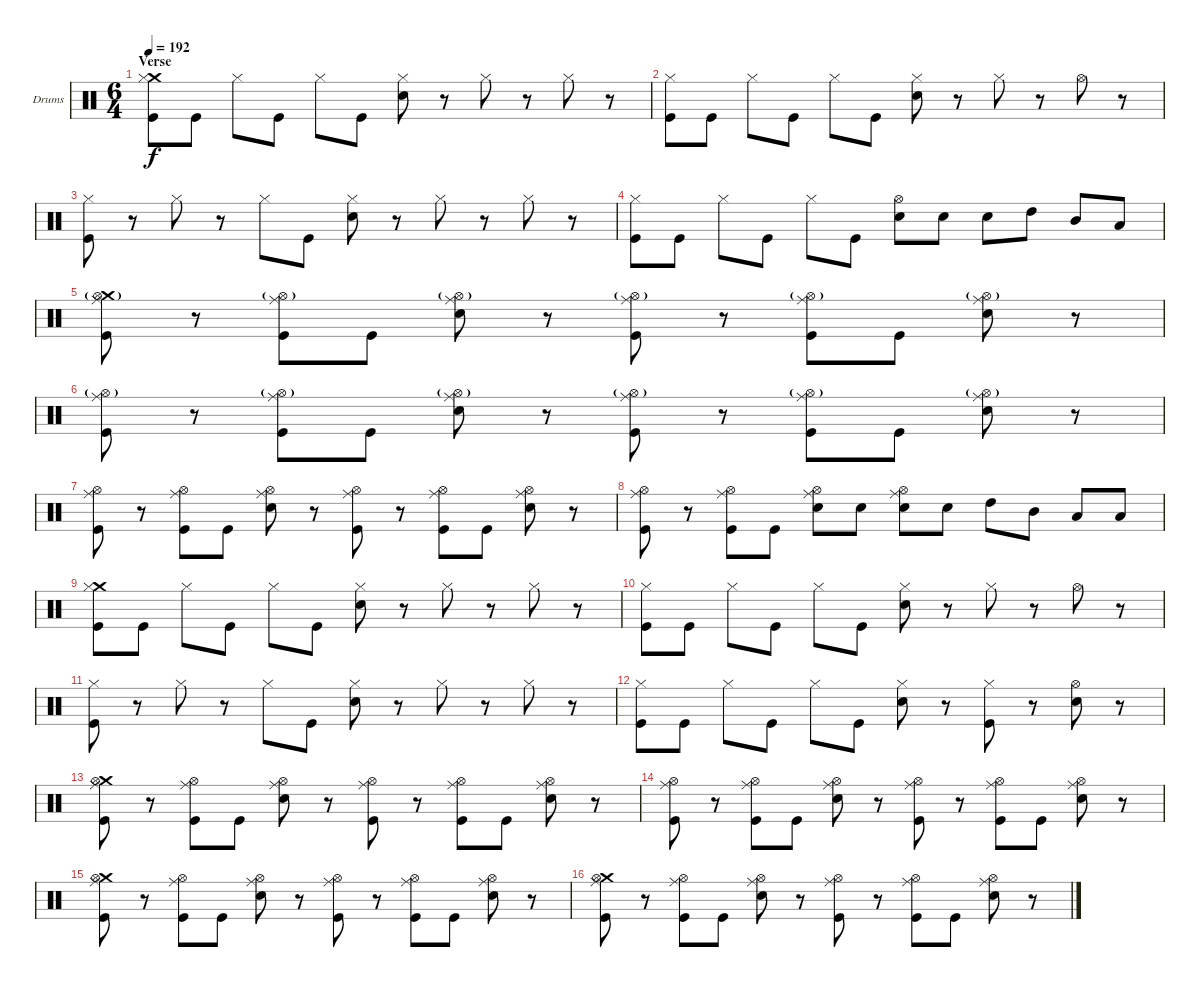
\bracketExtendMode groupsimilarinstruments
\firstSystemTrackNameOrientation horizontal
\otherSystemsTrackNameOrientation horizontal
\track ("Drumkit" "Drums") {instrument percussion}
\staff {score}
\articulation defaults
\ts (6 4)
\section ("" "Verse")
\tempo 192
\clef neutral
\ks c
("Crash medium (hit)" "Hi-Hat (closed)" "Kick (hit)").8{dy f} "Kick (hit)".8 "Hi-Hat (closed)".8 "Kick (hit)".8 "Hi-Hat (closed)".8 "Kick (hit)".8 ("Hi-Hat (closed)" "Snare (hit) 2").8 r.8 "Hi-Hat (closed)".8 r.8 "Hi-Hat (closed)".8 r.8 |
("Hi-Hat (closed)" "Kick (hit)").8 "Kick (hit)".8 "Hi-Hat (closed)".8 "Kick (hit)".8 "Hi-Hat (closed)".8 "Kick (hit)".8 ("Hi-Hat (closed)" "Snare (hit) 2").8 r.8 "Hi-Hat (closed)".8 r.8 "Hi-Hat (open)".8 r.8 |
("Hi-Hat (closed)" "Kick (hit)").8 r.8 "Hi-Hat (closed)".8 r.8 "Hi-Hat (closed)".8 "Kick (hit)".8 ("Hi-Hat (closed)" "Snare (hit) 2").8 r.8 "Hi-Hat (closed)".8 r.8 "Hi-Hat (closed)".8 r.8 |
("Hi-Hat (closed)" "Kick (hit)").8 "Kick (hit)".8 "Hi-Hat (closed)".8 "Kick (hit)".8 "Hi-Hat (closed)".8 "Kick (hit)".8 ("Hi-Hat (open)" "Snare (hit) 2").8 "Snare (hit) 2".8 "Snare (hit) 2".8 "High Tom (hit)".8 "Mid Tom (hit)".8 "Low Tom (hit)".8 |
("Crash medium (hit)" "Ride (middle)" "Hi-Hat (open)"{g} "Kick (hit)").8 r.8 ("Ride (middle)" "Hi-Hat (open)"{g} "Kick (hit)").8 "Kick (hit)".8 ("Ride (middle)" "Hi-Hat (open)"{g} "Snare (hit) 2").8 r.8 ("Ride (middle)" "Hi-Hat (open)"{g} "Kick (hit)").8 r.8 ("Ride (middle)" "Hi-Hat (open)"{g} "Kick (hit)").8 "Kick (hit)".8 ("Ride (middle)" "Hi-Hat (open)"{g} "Snare (hit) 2").8 r.8 |
("Ride (middle)" "Hi-Hat (open)"{g} "Kick (hit)").8 r.8 ("Ride (middle)" "Hi-Hat (open)"{g} "Kick (hit)").8 "Kick (hit)".8 ("Ride (middle)" "Hi-Hat (open)"{g} "Snare (hit) 2").8 r.8 ("Ride (middle)" "Hi-Hat (open)"{g} "Kick (hit)").8 r.8 ("Ride (middle)" "Hi-Hat (open)"{g} "Kick (hit)").8 "Kick (hit)".8 ("Ride (middle)" "Hi-Hat (open)"{g} "Snare (hit) 2").8 r.8 |
("Ride (middle)" "Hi-Hat (open)" "Kick (hit)").8 r.8 ("Ride (middle)" "Hi-Hat (open)" "Kick (hit)").8 "Kick (hit)".8 ("Ride (middle)" "Hi-Hat (open)" "Snare (hit) 2").8 r.8 ("Ride (middle)" "Hi-Hat (open)" "Kick (hit)").8 r.8 ("Ride (middle)" "Hi-Hat (open)" "Kick (hit)").8 "Kick (hit)".8 ("Ride (middle)" "Hi-Hat (open)" "Snare (hit) 2").8 r.8 |
("Ride (middle)" "Hi-Hat (open)" "Kick (hit)").8 r.8 ("Ride (middle)" "Hi-Hat (open)" "Kick (hit)").8 "Kick (hit)".8 ("Ride (middle)" "Hi-Hat (open)" "Snare (hit) 2").8 "Snare (hit) 2".8 ("Ride (middle)" "Hi-Hat (open)" "Snare (hit) 2").8 "Snare (hit) 2".8 "High Tom (hit)".8 "Mid Tom (hit)".8 "Low Tom (hit)".8 "Low Tom (hit)".8 |
("Crash medium (hit)" "Hi-Hat (closed)" "Kick (hit)").8 "Kick (hit)".8 "Hi-Hat (closed)".8 "Kick (hit)".8 "Hi-Hat (closed)".8 "Kick (hit)".8 ("Hi-Hat (closed)" "Snare (hit) 2").8 r.8 "Hi-Hat (closed)".8 r.8 "Hi-Hat (closed)".8 r.8 |
("Hi-Hat (closed)" "Kick (hit)").8 "Kick (hit)".8 "Hi-Hat (closed)".8 "Kick (hit)".8 "Hi-Hat (closed)".8 "Kick (hit)".8 ("Hi-Hat (closed)" "Snare (hit) 2").8 r.8 "Hi-Hat (closed)".8 r.8 "Hi-Hat (open)".8 r.8 |
("Hi-Hat (closed)" "Kick (hit)").8 r.8 "Hi-Hat (closed)".8 r.8 "Hi-Hat (closed)".8 "Kick (hit)".8 ("Hi-Hat (closed)" "Snare (hit) 2").8 r.8 "Hi-Hat (closed)".8 r.8 "Hi-Hat (closed)".8 r.8 |
("Hi-Hat (closed)" "Kick (hit)").8 "Kick (hit)".8 "Hi-Hat (closed)".8 "Kick (hit)".8 "Hi-Hat (closed)".8 "Kick (hit)".8 ("Hi-Hat (closed)" "Snare (hit) 2").8 r.8 ("Hi-Hat (closed)" "Kick (hit)").8 r.8 ("Hi-Hat (open)" "Snare (hit) 2").8 r.8 |
("Crash medium (hit)" "Ride (middle)" "Hi-Hat (open)" "Kick (hit)").8 r.8 ("Ride (middle)" "Hi-Hat (open)" "Kick (hit)").8 "Kick (hit)".8 ("Ride (middle)" "Hi-Hat (open)" "Snare (hit) 2").8 r.8 ("Ride (middle)" "Hi-Hat (open)" "Kick (hit)").8 r.8 ("Ride (middle)" "Hi-Hat (open)" "Kick (hit)").8 "Kick (hit)".8 ("Ride (middle)" "Hi-Hat (open)" "Snare (hit) 2").8 r.8 |
("Ride (middle)" "Hi-Hat (open)" "Kick (hit)").8 r.8 ("Ride (middle)" "Hi-Hat (open)" "Kick (hit)").8 "Kick (hit)".8 ("Ride (middle)" "Hi-Hat (open)" "Snare (hit) 2").8 r.8 ("Ride (middle)" "Hi-Hat (open)" "Kick (hit)").8 r.8 ("Ride (middle)" "Hi-Hat (open)" "Kick (hit)").8 "Kick (hit)".8 ("Ride (middle)" "Hi-Hat (open)" "Snare (hit) 2").8 r.8 |
("Crash medium (hit)" "Ride (middle)" "Hi-Hat (open)" "Kick (hit)").8 r.8 ("Ride (middle)" "Hi-Hat (open)" "Kick (hit)").8 "Kick (hit)".8 ("Ride (middle)" "Hi-Hat (open)" "Snare (hit) 2").8 r.8 ("Ride (middle)" "Hi-Hat (open)" "Kick (hit)").8 r.8 ("Ride (middle)" "Hi-Hat (open)" "Kick (hit)").8 "Kick (hit)".8 ("Ride (middle)" "Hi-Hat (open)" "Snare (hit) 2").8 r.8 |
("Crash medium (hit)" "Ride (middle)" "Hi-Hat (open)" "Kick (hit)").8 r.8 ("Ride (middle)" "Hi-Hat (open)" "Kick (hit)").8 "Kick (hit)".8 ("Ride (middle)" "Hi-Hat (open)" "Snare (hit) 2").8 r.8 ("Ride (middle)" "Hi-Hat (open)" "Kick (hit)").8 r.8 ("Ride (middle)" "Hi-Hat (open)" "Kick (hit)").8 "Kick (hit)".8 ("Ride (middle)" "Hi-Hat (open)" "Snare (hit) 2").8 r.8
